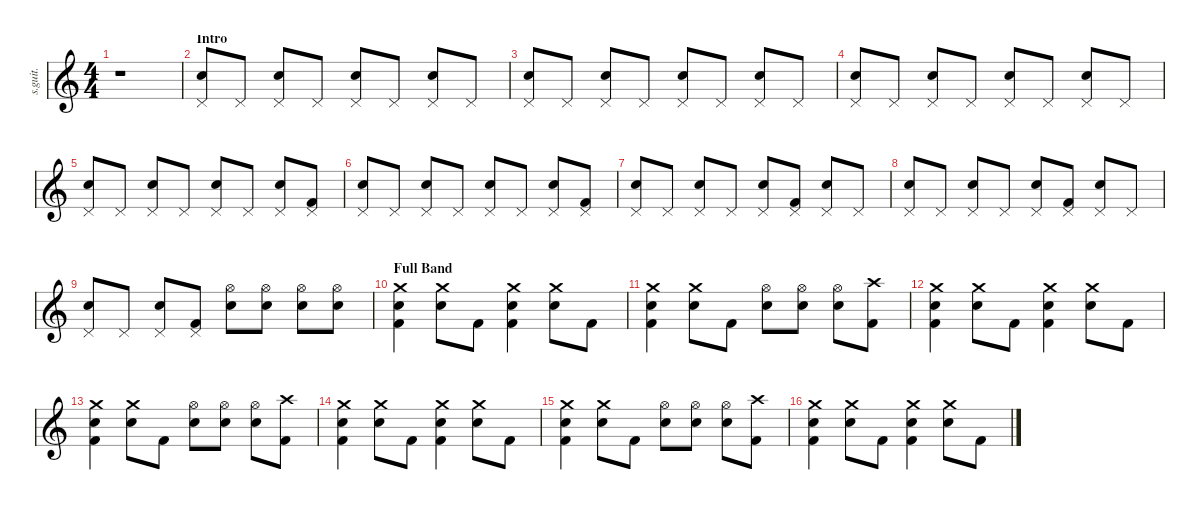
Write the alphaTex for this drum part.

\defaultSystemsLayout 4
\hideDynamics
\bracketExtendMode nobrackets
\track ("Earth" "s.guit.") {instrument percussion}
\staff {score}
\articulation defaults
\ts (4 4)
\beaming (8 2 2 2 2)
\tempo (130 hide)
\clef g2
\ks c
r.1{dy f} |
\section ("" "Intro")
("Snare (hit) 2" "Pedal Hi-Hat (hit)").8{lyrics (0 "") lyrics (1 "") lyrics (2 "") lyrics (3 "") lyrics (4 "")} "Pedal Hi-Hat (hit)".8{lyrics (0 "") lyrics (1 "") lyrics (2 "") lyrics (3 "") lyrics (4 "")} ("Snare (hit) 2" "Pedal Hi-Hat (hit)").8{lyrics (0 "") lyrics (1 "") lyrics (2 "") lyrics (3 "") lyrics (4 "")} "Pedal Hi-Hat (hit)".8{lyrics (0 "") lyrics (1 "") lyrics (2 "") lyrics (3 "") lyrics (4 "")} ("Snare (hit) 2" "Pedal Hi-Hat (hit)").8{lyrics (0 "") lyrics (1 "") lyrics (2 "") lyrics (3 "") lyrics (4 "")} "Pedal Hi-Hat (hit)".8{lyrics (0 "") lyrics (1 "") lyrics (2 "") lyrics (3 "") lyrics (4 "")} ("Snare (hit) 2" "Pedal Hi-Hat (hit)").8{lyrics (0 "") lyrics (1 "") lyrics (2 "") lyrics (3 "") lyrics (4 "")} "Pedal Hi-Hat (hit)".8{lyrics (0 "") lyrics (1 "") lyrics (2 "") lyrics (3 "") lyrics (4 "")} |
("Snare (hit) 2" "Pedal Hi-Hat (hit)").8{lyrics (0 "") lyrics (1 "") lyrics (2 "") lyrics (3 "") lyrics (4 "")} "Pedal Hi-Hat (hit)".8{lyrics (0 "") lyrics (1 "") lyrics (2 "") lyrics (3 "") lyrics (4 "")} ("Snare (hit) 2" "Pedal Hi-Hat (hit)").8{lyrics (0 "") lyrics (1 "") lyrics (2 "") lyrics (3 "") lyrics (4 "")} "Pedal Hi-Hat (hit)".8{lyrics (0 "") lyrics (1 "") lyrics (2 "") lyrics (3 "") lyrics (4 "")} ("Snare (hit) 2" "Pedal Hi-Hat (hit)").8{lyrics (0 "") lyrics (1 "") lyrics (2 "") lyrics (3 "") lyrics (4 "")} "Pedal Hi-Hat (hit)".8{lyrics (0 "") lyrics (1 "") lyrics (2 "") lyrics (3 "") lyrics (4 "")} ("Snare (hit) 2" "Pedal Hi-Hat (hit)").8{lyrics (0 "") lyrics (1 "") lyrics (2 "") lyrics (3 "") lyrics (4 "")} "Pedal Hi-Hat (hit)".8{lyrics (0 "") lyrics (1 "") lyrics (2 "") lyrics (3 "") lyrics (4 "")} |
("Snare (hit) 2" "Pedal Hi-Hat (hit)").8{lyrics (0 "") lyrics (1 "") lyrics (2 "") lyrics (3 "") lyrics (4 "")} "Pedal Hi-Hat (hit)".8{lyrics (0 "") lyrics (1 "") lyrics (2 "") lyrics (3 "") lyrics (4 "")} ("Snare (hit) 2" "Pedal Hi-Hat (hit)").8{lyrics (0 "") lyrics (1 "") lyrics (2 "") lyrics (3 "") lyrics (4 "")} "Pedal Hi-Hat (hit)".8{lyrics (0 "") lyrics (1 "") lyrics (2 "") lyrics (3 "") lyrics (4 "")} ("Snare (hit) 2" "Pedal Hi-Hat (hit)").8{lyrics (0 "") lyrics (1 "") lyrics (2 "") lyrics (3 "") lyrics (4 "")} "Pedal Hi-Hat (hit)".8{lyrics (0 "") lyrics (1 "") lyrics (2 "") lyrics (3 "") lyrics (4 "")} ("Snare (hit) 2" "Pedal Hi-Hat (hit)").8{lyrics (0 "") lyrics (1 "") lyrics (2 "") lyrics (3 "") lyrics (4 "")} "Pedal Hi-Hat (hit)".8{lyrics (0 "") lyrics (1 "") lyrics (2 "") lyrics (3 "") lyrics (4 "")} |
("Snare (hit) 2" "Pedal Hi-Hat (hit)").8{lyrics (0 "") lyrics (1 "") lyrics (2 "") lyrics (3 "") lyrics (4 "")} "Pedal Hi-Hat (hit)".8{lyrics (0 "") lyrics (1 "") lyrics (2 "") lyrics (3 "") lyrics (4 "")} ("Snare (hit) 2" "Pedal Hi-Hat (hit)").8{lyrics (0 "") lyrics (1 "") lyrics (2 "") lyrics (3 "") lyrics (4 "")} "Pedal Hi-Hat (hit)".8{lyrics (0 "") lyrics (1 "") lyrics (2 "") lyrics (3 "") lyrics (4 "")} ("Snare (hit) 2" "Pedal Hi-Hat (hit)").8{lyrics (0 "") lyrics (1 "") lyrics (2 "") lyrics (3 "") lyrics (4 "")} "Pedal Hi-Hat (hit)".8{lyrics (0 "") lyrics (1 "") lyrics (2 "") lyrics (3 "") lyrics (4 "")} ("Snare (hit) 2" "Pedal Hi-Hat (hit)").8{lyrics (0 "") lyrics (1 "") lyrics (2 "") lyrics (3 "") lyrics (4 "")} ("Kick (hit) 2" "Pedal Hi-Hat (hit)").8{lyrics (0 "") lyrics (1 "") lyrics (2 "") lyrics (3 "") lyrics (4 "")} |
("Snare (hit) 2" "Pedal Hi-Hat (hit)").8{lyrics (0 "") lyrics (1 "") lyrics (2 "") lyrics (3 "") lyrics (4 "")} "Pedal Hi-Hat (hit)".8{lyrics (0 "") lyrics (1 "") lyrics (2 "") lyrics (3 "") lyrics (4 "")} ("Snare (hit) 2" "Pedal Hi-Hat (hit)").8{lyrics (0 "") lyrics (1 "") lyrics (2 "") lyrics (3 "") lyrics (4 "")} "Pedal Hi-Hat (hit)".8{lyrics (0 "") lyrics (1 "") lyrics (2 "") lyrics (3 "") lyrics (4 "")} ("Snare (hit) 2" "Pedal Hi-Hat (hit)").8{lyrics (0 "") lyrics (1 "") lyrics (2 "") lyrics (3 "") lyrics (4 "")} "Pedal Hi-Hat (hit)".8{lyrics (0 "") lyrics (1 "") lyrics (2 "") lyrics (3 "") lyrics (4 "")} ("Snare (hit) 2" "Pedal Hi-Hat (hit)").8{lyrics (0 "") lyrics (1 "") lyrics (2 "") lyrics (3 "") lyrics (4 "")} ("Kick (hit) 2" "Pedal Hi-Hat (hit)").8{lyrics (0 "") lyrics (1 "") lyrics (2 "") lyrics (3 "") lyrics (4 "")} |
("Snare (hit) 2" "Pedal Hi-Hat (hit)").8{lyrics (0 "") lyrics (1 "") lyrics (2 "") lyrics (3 "") lyrics (4 "")} "Pedal Hi-Hat (hit)".8{lyrics (0 "") lyrics (1 "") lyrics (2 "") lyrics (3 "") lyrics (4 "")} ("Snare (hit) 2" "Pedal Hi-Hat (hit)").8{lyrics (0 "") lyrics (1 "") lyrics (2 "") lyrics (3 "") lyrics (4 "")} "Pedal Hi-Hat (hit)".8{lyrics (0 "") lyrics (1 "") lyrics (2 "") lyrics (3 "") lyrics (4 "")} ("Snare (hit) 2" "Pedal Hi-Hat (hit)").8{lyrics (0 "") lyrics (1 "") lyrics (2 "") lyrics (3 "") lyrics (4 "")} ("Kick (hit) 2" "Pedal Hi-Hat (hit)").8{lyrics (0 "") lyrics (1 "") lyrics (2 "") lyrics (3 "") lyrics (4 "")} ("Snare (hit) 2" "Pedal Hi-Hat (hit)").8{lyrics (0 "") lyrics (1 "") lyrics (2 "") lyrics (3 "") lyrics (4 "")} "Pedal Hi-Hat (hit)".8{lyrics (0 "") lyrics (1 "") lyrics (2 "") lyrics (3 "") lyrics (4 "")} |
("Snare (hit) 2" "Pedal Hi-Hat (hit)").8{lyrics (0 "") lyrics (1 "") lyrics (2 "") lyrics (3 "") lyrics (4 "")} "Pedal Hi-Hat (hit)".8{lyrics (0 "") lyrics (1 "") lyrics (2 "") lyrics (3 "") lyrics (4 "")} ("Snare (hit) 2" "Pedal Hi-Hat (hit)").8{lyrics (0 "") lyrics (1 "") lyrics (2 "") lyrics (3 "") lyrics (4 "")} "Pedal Hi-Hat (hit)".8{lyrics (0 "") lyrics (1 "") lyrics (2 "") lyrics (3 "") lyrics (4 "")} ("Snare (hit) 2" "Pedal Hi-Hat (hit)").8{lyrics (0 "") lyrics (1 "") lyrics (2 "") lyrics (3 "") lyrics (4 "")} ("Kick (hit) 2" "Pedal Hi-Hat (hit)").8{lyrics (0 "") lyrics (1 "") lyrics (2 "") lyrics (3 "") lyrics (4 "")} ("Snare (hit) 2" "Pedal Hi-Hat (hit)").8{lyrics (0 "") lyrics (1 "") lyrics (2 "") lyrics (3 "") lyrics (4 "")} "Pedal Hi-Hat (hit)".8{lyrics (0 "") lyrics (1 "") lyrics (2 "") lyrics (3 "") lyrics (4 "")} |
("Snare (hit) 2" "Pedal Hi-Hat (hit)").8{lyrics (0 "") lyrics (1 "") lyrics (2 "") lyrics (3 "") lyrics (4 "")} "Pedal Hi-Hat (hit)".8{lyrics (0 "") lyrics (1 "") lyrics (2 "") lyrics (3 "") lyrics (4 "")} ("Snare (hit) 2" "Pedal Hi-Hat (hit)").8{lyrics (0 "") lyrics (1 "") lyrics (2 "") lyrics (3 "") lyrics (4 "")} ("Kick (hit) 2" "Pedal Hi-Hat (hit)").8{lyrics (0 "") lyrics (1 "") lyrics (2 "") lyrics (3 "") lyrics (4 "")} ("Hi-Hat (open)" "Snare (hit) 2").8{lyrics (0 "") lyrics (1 "") lyrics (2 "") lyrics (3 "") lyrics (4 "")} ("Hi-Hat (open)" "Snare (hit) 2").8{lyrics (0 "") lyrics (1 "") lyrics (2 "") lyrics (3 "") lyrics (4 "")} ("Hi-Hat (open)" "Snare (hit) 2").8{lyrics (0 "") lyrics (1 "") lyrics (2 "") lyrics (3 "") lyrics (4 "")} ("Hi-Hat (open)" "Snare (hit) 2").8{lyrics (0 "") lyrics (1 "") lyrics (2 "") lyrics (3 "") lyrics (4 "")} |
\section ("" "Full Band")
("Crash medium (hit)" "Snare (hit) 2" "Kick (hit) 2").4{lyrics (0 "") lyrics (1 "") lyrics (2 "") lyrics (3 "") lyrics (4 "")} ("Crash medium (hit)" "Snare (hit) 2").8{lyrics (0 "") lyrics (1 "") lyrics (2 "") lyrics (3 "") lyrics (4 "")} "Kick (hit) 2".8{lyrics (0 "") lyrics (1 "") lyrics (2 "") lyrics (3 "") lyrics (4 "")} ("Crash medium (hit)" "Snare (hit) 2" "Kick (hit) 2").4{lyrics (0 "") lyrics (1 "") lyrics (2 "") lyrics (3 "") lyrics (4 "")} ("Crash medium (hit)" "Snare (hit) 2").8{lyrics (0 "") lyrics (1 "") lyrics (2 "") lyrics (3 "") lyrics (4 "")} "Kick (hit) 2".8{lyrics (0 "") lyrics (1 "") lyrics (2 "") lyrics (3 "") lyrics (4 "")} |
("Crash medium (hit)" "Snare (hit) 2" "Kick (hit) 2").4{lyrics (0 "") lyrics (1 "") lyrics (2 "") lyrics (3 "") lyrics (4 "")} ("Crash medium (hit)" "Snare (hit) 2").8{lyrics (0 "") lyrics (1 "") lyrics (2 "") lyrics (3 "") lyrics (4 "")} "Kick (hit) 2".8{lyrics (0 "") lyrics (1 "") lyrics (2 "") lyrics (3 "") lyrics (4 "")} ("Hi-Hat (open)" "Snare (hit) 2").8{lyrics (0 "") lyrics (1 "") lyrics (2 "") lyrics (3 "") lyrics (4 "")} ("Hi-Hat (open)" "Snare (hit) 2").8{lyrics (0 "") lyrics (1 "") lyrics (2 "") lyrics (3 "") lyrics (4 "")} ("Hi-Hat (open)" "Snare (hit) 2").8{lyrics (0 "") lyrics (1 "") lyrics (2 "") lyrics (3 "") lyrics (4 "")} ("Crash high (hit)" "Kick (hit) 2").8{lyrics (0 "") lyrics (1 "") lyrics (2 "") lyrics (3 "") lyrics (4 "")} |
("Crash medium (hit)" "Snare (hit) 2" "Kick (hit) 2").4{lyrics (0 "") lyrics (1 "") lyrics (2 "") lyrics (3 "") lyrics (4 "")} ("Crash medium (hit)" "Snare (hit) 2").8{lyrics (0 "") lyrics (1 "") lyrics (2 "") lyrics (3 "") lyrics (4 "")} "Kick (hit) 2".8{lyrics (0 "") lyrics (1 "") lyrics (2 "") lyrics (3 "") lyrics (4 "")} ("Crash medium (hit)" "Snare (hit) 2" "Kick (hit) 2").4{lyrics (0 "") lyrics (1 "") lyrics (2 "") lyrics (3 "") lyrics (4 "")} ("Crash medium (hit)" "Snare (hit) 2").8{lyrics (0 "") lyrics (1 "") lyrics (2 "") lyrics (3 "") lyrics (4 "")} "Kick (hit) 2".8{lyrics (0 "") lyrics (1 "") lyrics (2 "") lyrics (3 "") lyrics (4 "")} |
("Crash medium (hit)" "Snare (hit) 2" "Kick (hit) 2").4{lyrics (0 "") lyrics (1 "") lyrics (2 "") lyrics (3 "") lyrics (4 "")} ("Crash medium (hit)" "Snare (hit) 2").8{lyrics (0 "") lyrics (1 "") lyrics (2 "") lyrics (3 "") lyrics (4 "")} "Kick (hit) 2".8{lyrics (0 "") lyrics (1 "") lyrics (2 "") lyrics (3 "") lyrics (4 "")} ("Hi-Hat (open)" "Snare (hit) 2").8{lyrics (0 "") lyrics (1 "") lyrics (2 "") lyrics (3 "") lyrics (4 "")} ("Hi-Hat (open)" "Snare (hit) 2").8{lyrics (0 "") lyrics (1 "") lyrics (2 "") lyrics (3 "") lyrics (4 "")} ("Hi-Hat (open)" "Snare (hit) 2").8{lyrics (0 "") lyrics (1 "") lyrics (2 "") lyrics (3 "") lyrics (4 "")} ("Crash high (hit)" "Kick (hit) 2").8{lyrics (0 "") lyrics (1 "") lyrics (2 "") lyrics (3 "") lyrics (4 "")} |
("Crash medium (hit)" "Snare (hit) 2" "Kick (hit) 2").4{lyrics (0 "") lyrics (1 "") lyrics (2 "") lyrics (3 "") lyrics (4 "")} ("Crash medium (hit)" "Snare (hit) 2").8{lyrics (0 "") lyrics (1 "") lyrics (2 "") lyrics (3 "") lyrics (4 "")} "Kick (hit) 2".8{lyrics (0 "") lyrics (1 "") lyrics (2 "") lyrics (3 "") lyrics (4 "")} ("Crash medium (hit)" "Snare (hit) 2" "Kick (hit) 2").4{lyrics (0 "") lyrics (1 "") lyrics (2 "") lyrics (3 "") lyrics (4 "")} ("Crash medium (hit)" "Snare (hit) 2").8{lyrics (0 "") lyrics (1 "") lyrics (2 "") lyrics (3 "") lyrics (4 "")} "Kick (hit) 2".8{lyrics (0 "") lyrics (1 "") lyrics (2 "") lyrics (3 "") lyrics (4 "")} |
("Crash medium (hit)" "Snare (hit) 2" "Kick (hit) 2").4{lyrics (0 "") lyrics (1 "") lyrics (2 "") lyrics (3 "") lyrics (4 "")} ("Crash medium (hit)" "Snare (hit) 2").8{lyrics (0 "") lyrics (1 "") lyrics (2 "") lyrics (3 "") lyrics (4 "")} "Kick (hit) 2".8{lyrics (0 "") lyrics (1 "") lyrics (2 "") lyrics (3 "") lyrics (4 "")} ("Hi-Hat (open)" "Snare (hit) 2").8{lyrics (0 "") lyrics (1 "") lyrics (2 "") lyrics (3 "") lyrics (4 "")} ("Hi-Hat (open)" "Snare (hit) 2").8{lyrics (0 "") lyrics (1 "") lyrics (2 "") lyrics (3 "") lyrics (4 "")} ("Hi-Hat (open)" "Snare (hit) 2").8{lyrics (0 "") lyrics (1 "") lyrics (2 "") lyrics (3 "") lyrics (4 "")} ("Crash high (hit)" "Kick (hit) 2").8{lyrics (0 "") lyrics (1 "") lyrics (2 "") lyrics (3 "") lyrics (4 "")} |
("Crash medium (hit)" "Snare (hit) 2" "Kick (hit) 2").4{lyrics (0 "") lyrics (1 "") lyrics (2 "") lyrics (3 "") lyrics (4 "")} ("Crash medium (hit)" "Snare (hit) 2").8{lyrics (0 "") lyrics (1 "") lyrics (2 "") lyrics (3 "") lyrics (4 "")} "Kick (hit) 2".8{lyrics (0 "") lyrics (1 "") lyrics (2 "") lyrics (3 "") lyrics (4 "")} ("Crash medium (hit)" "Snare (hit) 2" "Kick (hit) 2").4{lyrics (0 "") lyrics (1 "") lyrics (2 "") lyrics (3 "") lyrics (4 "")} ("Crash medium (hit)" "Snare (hit) 2").8{lyrics (0 "") lyrics (1 "") lyrics (2 "") lyrics (3 "") lyrics (4 "")} "Kick (hit) 2".8{lyrics (0 "") lyrics (1 "") lyrics (2 "") lyrics (3 "") lyrics (4 "")}
